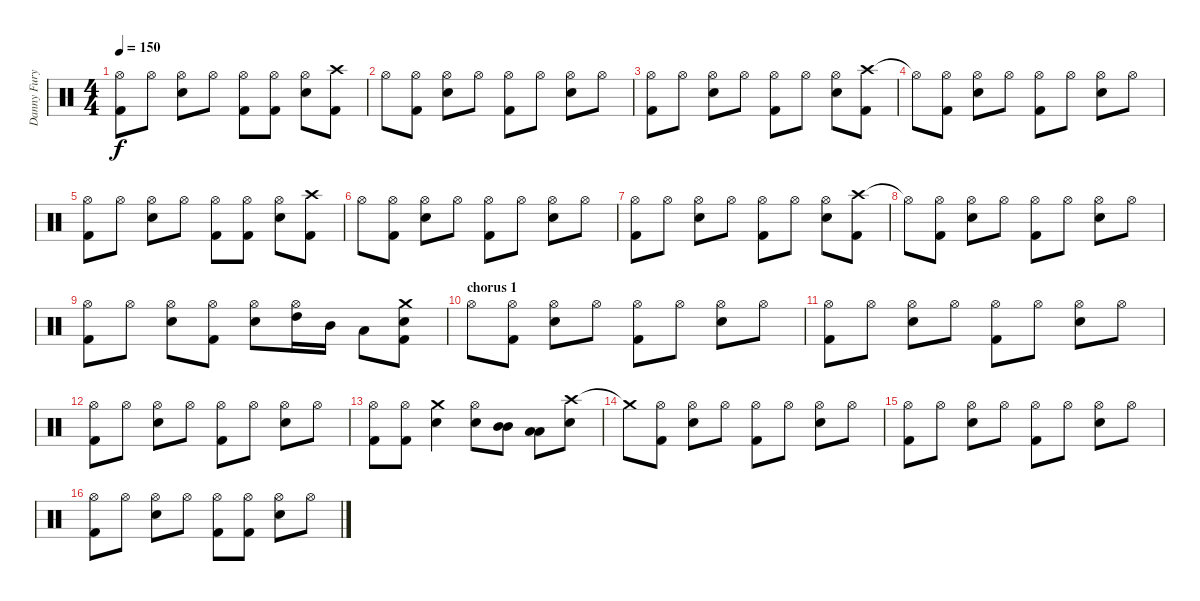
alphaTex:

\track ("Danny Fury" "Danny Fury") {instrument percussion}
\staff {score}
\articulation defaults
\ts (4 4)
\tempo 150
\clef neutral
\ks c
("Hi-Hat (open)" "Kick (hit) 2").8{dy f} "Hi-Hat (open)".8 ("Hi-Hat (open)" "Electric Snare (hit)").8 "Hi-Hat (open)".8 ("Hi-Hat (open)" "Kick (hit) 2").8 ("Hi-Hat (open)" "Kick (hit) 2").8 ("Hi-Hat (open)" "Electric Snare (hit)").8 ("Crash high (hit)" "Kick (hit) 2").8 |
"Hi-Hat (open)".8 ("Hi-Hat (open)" "Kick (hit) 2").8 ("Hi-Hat (open)" "Electric Snare (hit)").8 "Hi-Hat (open)".8 ("Hi-Hat (open)" "Kick (hit) 2").8 "Hi-Hat (open)".8 ("Hi-Hat (open)" "Electric Snare (hit)").8 "Hi-Hat (open)".8 |
("Hi-Hat (open)" "Kick (hit) 2").8 "Hi-Hat (open)".8 ("Hi-Hat (open)" "Electric Snare (hit)").8 "Hi-Hat (open)".8 ("Hi-Hat (open)" "Kick (hit) 2").8 "Hi-Hat (open)".8 ("Hi-Hat (open)" "Electric Snare (hit)").8 ("Crash high (hit)" "Kick (hit) 2").8 |
"Hi-Hat (open)"{t}.8 ("Hi-Hat (open)" "Kick (hit) 2").8 ("Hi-Hat (open)" "Electric Snare (hit)").8 "Hi-Hat (open)".8 ("Hi-Hat (open)" "Kick (hit) 2").8 "Hi-Hat (open)".8 ("Hi-Hat (open)" "Electric Snare (hit)").8 "Hi-Hat (open)".8 |
("Hi-Hat (open)" "Kick (hit) 2").8 "Hi-Hat (open)".8 ("Hi-Hat (open)" "Electric Snare (hit)").8 "Hi-Hat (open)".8 ("Hi-Hat (open)" "Kick (hit) 2").8 ("Hi-Hat (open)" "Kick (hit) 2").8 ("Hi-Hat (open)" "Electric Snare (hit)").8 ("Crash high (hit)" "Kick (hit) 2").8 |
"Hi-Hat (open)".8 ("Hi-Hat (open)" "Kick (hit) 2").8 ("Hi-Hat (open)" "Electric Snare (hit)").8 "Hi-Hat (open)".8 ("Hi-Hat (open)" "Kick (hit) 2").8 "Hi-Hat (open)".8 ("Hi-Hat (open)" "Electric Snare (hit)").8 "Hi-Hat (open)".8 |
("Hi-Hat (open)" "Kick (hit) 2").8 "Hi-Hat (open)".8 ("Hi-Hat (open)" "Electric Snare (hit)").8 "Hi-Hat (open)".8 ("Hi-Hat (open)" "Kick (hit) 2").8 "Hi-Hat (open)".8 ("Hi-Hat (open)" "Electric Snare (hit)").8 ("Crash high (hit)" "Kick (hit) 2").8 |
"Hi-Hat (open)"{t}.8 ("Hi-Hat (open)" "Kick (hit) 2").8 ("Hi-Hat (open)" "Electric Snare (hit)").8 "Hi-Hat (open)".8 ("Hi-Hat (open)" "Kick (hit) 2").8 "Hi-Hat (open)".8 ("Hi-Hat (open)" "Electric Snare (hit)").8 "Hi-Hat (open)".8 |
("Hi-Hat (open)" "Kick (hit) 2").8 "Hi-Hat (open)".8 ("Hi-Hat (open)" "Electric Snare (hit)").8 ("Hi-Hat (open)" "Kick (hit) 2").8 ("Hi-Hat (open)" "Electric Snare (hit)").8 ("Hi-Hat (open)" "High Tom (hit)").16 "Mid Tom (hit)".16 "Low Tom (hit)".8 ("Crash medium (hit)" "Electric Snare (hit)" "Kick (hit) 2").8 |
\section ("" "chorus 1")
"Hi-Hat (open)".8 ("Hi-Hat (open)" "Kick (hit) 2").8 ("Hi-Hat (open)" "Electric Snare (hit)").8 "Hi-Hat (open)".8 ("Hi-Hat (open)" "Kick (hit) 2").8 "Hi-Hat (open)".8 ("Hi-Hat (open)" "Electric Snare (hit)").8 "Hi-Hat (open)".8 |
("Hi-Hat (open)" "Kick (hit) 2").8 "Hi-Hat (open)".8 ("Hi-Hat (open)" "Electric Snare (hit)").8 "Hi-Hat (open)".8 ("Hi-Hat (open)" "Kick (hit) 2").8 "Hi-Hat (open)".8 ("Hi-Hat (open)" "Electric Snare (hit)").8 "Hi-Hat (open)".8 |
("Hi-Hat (open)" "Kick (hit) 2").8 "Hi-Hat (open)".8 ("Hi-Hat (open)" "Electric Snare (hit)").8 "Hi-Hat (open)".8 ("Hi-Hat (open)" "Kick (hit) 2").8 "Hi-Hat (open)".8 ("Hi-Hat (open)" "Electric Snare (hit)").8 "Hi-Hat (open)".8 |
("Hi-Hat (open)" "Kick (hit) 2").8 ("Hi-Hat (open)" "Kick (hit) 2").8 ("Crash medium (hit)" "Electric Snare (hit)").4 ("Hi-Hat (open)" "Electric Snare (hit)").8 ("Mid Tom (hit)" "Mid Tom (hit)").8 ("Low Tom (hit)" "Low Tom (hit)").8 ("Crash high (hit)" "Electric Snare (hit)").8 |
"Crash medium (hit)"{t}.8 ("Hi-Hat (open)" "Kick (hit) 2").8 ("Hi-Hat (open)" "Electric Snare (hit)").8 "Hi-Hat (open)".8 ("Hi-Hat (open)" "Kick (hit) 2").8 "Hi-Hat (open)".8 ("Hi-Hat (open)" "Electric Snare (hit)").8 "Hi-Hat (open)".8 |
("Hi-Hat (open)" "Kick (hit) 2").8 "Hi-Hat (open)".8 ("Hi-Hat (open)" "Electric Snare (hit)").8 "Hi-Hat (open)".8 ("Hi-Hat (open)" "Kick (hit) 2").8 "Hi-Hat (open)".8 ("Hi-Hat (open)" "Electric Snare (hit)").8 "Hi-Hat (open)".8 |
("Hi-Hat (open)" "Kick (hit) 2").8 "Hi-Hat (open)".8 ("Hi-Hat (open)" "Electric Snare (hit)").8 "Hi-Hat (open)".8 ("Hi-Hat (open)" "Kick (hit) 2").8 ("Hi-Hat (open)" "Kick (hit) 2").8 ("Hi-Hat (open)" "Electric Snare (hit)").8 "Hi-Hat (open)".8
